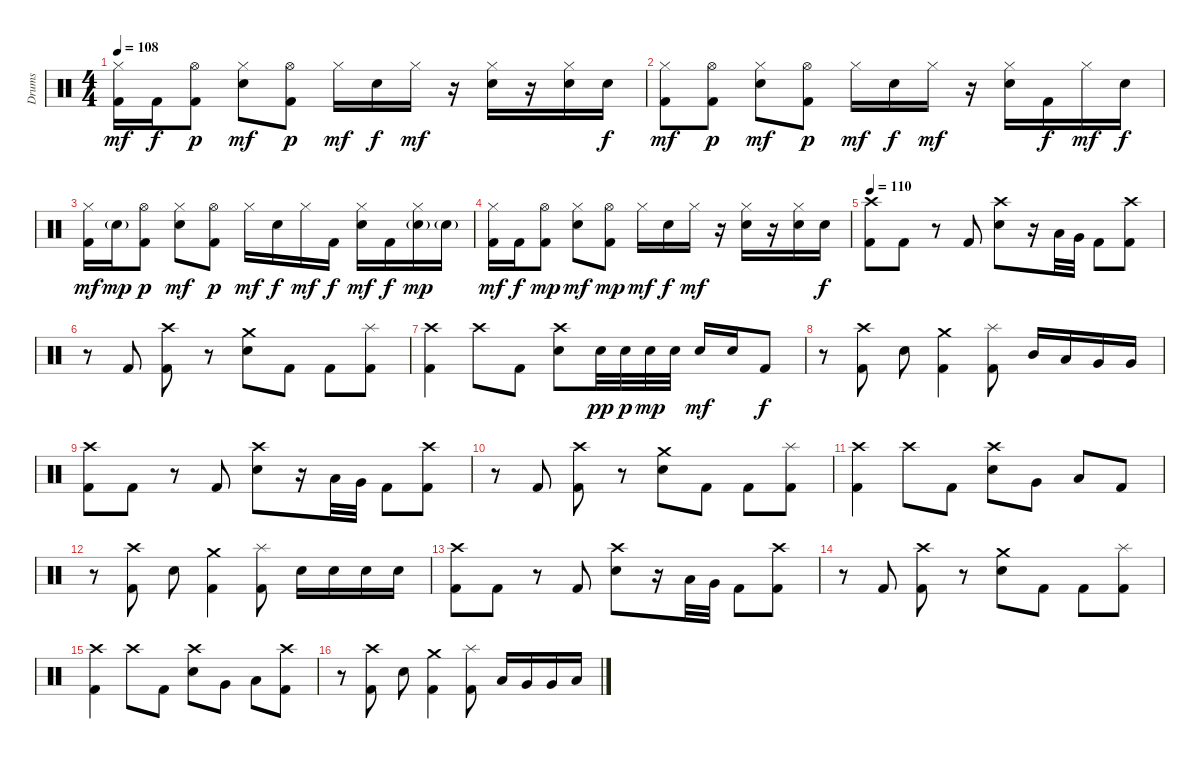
\track ("Drums" "Drums") {instrument percussion}
\staff {score}
\articulation defaults
\ts (4 4)
\tempo 108
\clef neutral
\ks c
("Hi-Hat (closed)" "Kick (hit) 2").16{dy mf} "Kick (hit) 2".16{dy f} ("Hi-Hat (open)" "Kick (hit) 2").8{dy p} ("Hi-Hat (closed)" "Electric Snare (hit)").8{dy mf} ("Hi-Hat (open)" "Kick (hit) 2").8{dy p} "Hi-Hat (closed)".16{dy mf} "Electric Snare (hit)".16{dy f} "Hi-Hat (closed)".16{dy mf} r.16 ("Hi-Hat (closed)" "Electric Snare (hit)").16 r.16 ("Hi-Hat (closed)" "Electric Snare (hit)").16 "Electric Snare (hit)".16{dy f} |
("Hi-Hat (closed)" "Kick (hit) 2").8{dy mf} ("Hi-Hat (open)" "Kick (hit) 2").8{dy p} ("Hi-Hat (closed)" "Electric Snare (hit)").8{dy mf} ("Hi-Hat (open)" "Kick (hit) 2").8{dy p} "Hi-Hat (closed)".16{dy mf} "Electric Snare (hit)".16{dy f} "Hi-Hat (closed)".16{dy mf} r.16 ("Hi-Hat (closed)" "Electric Snare (hit)").16 "Kick (hit) 2".16{dy f} "Hi-Hat (closed)".16{dy mf} "Electric Snare (hit)".16{dy f} |
("Hi-Hat (closed)" "Kick (hit) 2").16{dy mf} "Electric Snare (hit)"{g}.16{dy mp} ("Hi-Hat (open)" "Kick (hit) 2").8{dy p} ("Hi-Hat (closed)" "Electric Snare (hit)").8{dy mf} ("Hi-Hat (open)" "Kick (hit) 2").8{dy p} "Hi-Hat (closed)".16{dy mf} "Electric Snare (hit)".16{dy f} "Hi-Hat (closed)".16{dy mf} "Kick (hit) 2".16{dy f} ("Hi-Hat (closed)" "Electric Snare (hit)").16{dy mf} "Kick (hit) 2".16{dy f} ("Hi-Hat (closed)" "Electric Snare (hit)"{g}).16{dy mp} "Electric Snare (hit)"{g}.16 |
("Hi-Hat (closed)" "Kick (hit) 2").16{dy mf} "Kick (hit) 2".16{dy f} ("Hi-Hat (open)" "Kick (hit) 2").8{dy mp} ("Hi-Hat (closed)" "Electric Snare (hit)").8{dy mf} ("Hi-Hat (open)" "Kick (hit) 2").8{dy mp} "Hi-Hat (closed)".16{dy mf} "Electric Snare (hit)".16{dy f} "Hi-Hat (closed)".16{dy mf} r.16 ("Hi-Hat (closed)" "Electric Snare (hit)").16 r.16 ("Hi-Hat (closed)" "Electric Snare (hit)").16 "Electric Snare (hit)".16{dy f} |
\tempo 110
("Crash high (hit)" "Kick (hit) 2").8 "Kick (hit) 2".8 r.8 "Kick (hit) 2".8 ("Crash high (hit)" "Electric Snare (hit)").8 r.16 "Low Tom (hit)".32 "Very Low Tom (hit)".32 "Kick (hit) 2".8 ("Crash high (hit)" "Kick (hit) 2").8 |
r.8 "Kick (hit) 2".8 ("Crash high (hit)" "Kick (hit) 2").8 r.8 ("Crash medium (hit)" "Electric Snare (hit)").8 "Kick (hit) 2".8 "Kick (hit) 2".8 ("Splash (hit)" "Kick (hit) 2").8 |
("Crash high (hit)" "Kick (hit) 2").4 "Crash high (hit)".8 "Kick (hit) 2".8 ("Crash high (hit)" "Electric Snare (hit)").8 "Electric Snare (hit)".32{dy pp} "Electric Snare (hit)".32{dy p} "Electric Snare (hit)".32{dy mp} "Electric Snare (hit)".32 "Electric Snare (hit)".16{dy mf} "Electric Snare (hit)".16 "Kick (hit) 2".8{dy f} |
r.8 ("Crash high (hit)" "Kick (hit) 2").8 "Electric Snare (hit)".8 ("Crash medium (hit)" "Kick (hit) 2").4 ("Splash (hit)" "Kick (hit) 2").8 "Mid Tom (hit)".16 "Low Tom (hit)".16 "Very Low Tom (hit)".16 "Very Low Tom (hit)".16 |
("Crash high (hit)" "Kick (hit) 2").8 "Kick (hit) 2".8 r.8 "Kick (hit) 2".8 ("Crash high (hit)" "Electric Snare (hit)").8 r.16 "Low Tom (hit)".32 "Very Low Tom (hit)".32 "Kick (hit) 2".8 ("Crash high (hit)" "Kick (hit) 2").8 |
r.8 "Kick (hit) 2".8 ("Crash high (hit)" "Kick (hit) 2").8 r.8 ("Crash medium (hit)" "Electric Snare (hit)").8 "Kick (hit) 2".8 "Kick (hit) 2".8 ("Splash (hit)" "Kick (hit) 2").8 |
("Crash high (hit)" "Kick (hit) 2").4 "Crash high (hit)".8 "Kick (hit) 2".8 ("Crash high (hit)" "Electric Snare (hit)").8 "Very Low Tom (hit)".8 "Low Floor Tom (hit)".8 "Kick (hit) 2".8 |
r.8 ("Crash high (hit)" "Kick (hit) 2").8 "Electric Snare (hit)".8 ("Crash medium (hit)" "Kick (hit) 2").4 ("Splash (hit)" "Kick (hit) 2").8 "Electric Snare (hit)".16 "Electric Snare (hit)".16 "Electric Snare (hit)".16 "Electric Snare (hit)".16 |
("Crash high (hit)" "Kick (hit) 2").8 "Kick (hit) 2".8 r.8 "Kick (hit) 2".8 ("Crash high (hit)" "Electric Snare (hit)").8 r.16 "Low Tom (hit)".32 "Very Low Tom (hit)".32 "Kick (hit) 2".8 ("Crash high (hit)" "Kick (hit) 2").8 |
r.8 "Kick (hit) 2".8 ("Crash high (hit)" "Kick (hit) 2").8 r.8 ("Crash medium (hit)" "Electric Snare (hit)").8 "Kick (hit) 2".8 "Kick (hit) 2".8 ("Splash (hit)" "Kick (hit) 2").8 |
("Crash high (hit)" "Kick (hit) 2").4 "Crash high (hit)".8 "Kick (hit) 2".8 ("Crash high (hit)" "Electric Snare (hit)").8 "Very Low Tom (hit)".8 "Low Floor Tom (hit)".8 ("Crash high (hit)" "Kick (hit) 2").8 |
r.8 ("Crash high (hit)" "Kick (hit) 2").8 "Electric Snare (hit)".8 ("Crash medium (hit)" "Kick (hit) 2").4 ("Splash (hit)" "Kick (hit) 2").8 "Low Tom (hit)".16 "Very Low Tom (hit)".16 "Very Low Tom (hit)".16 "Low Floor Tom (hit)".16
